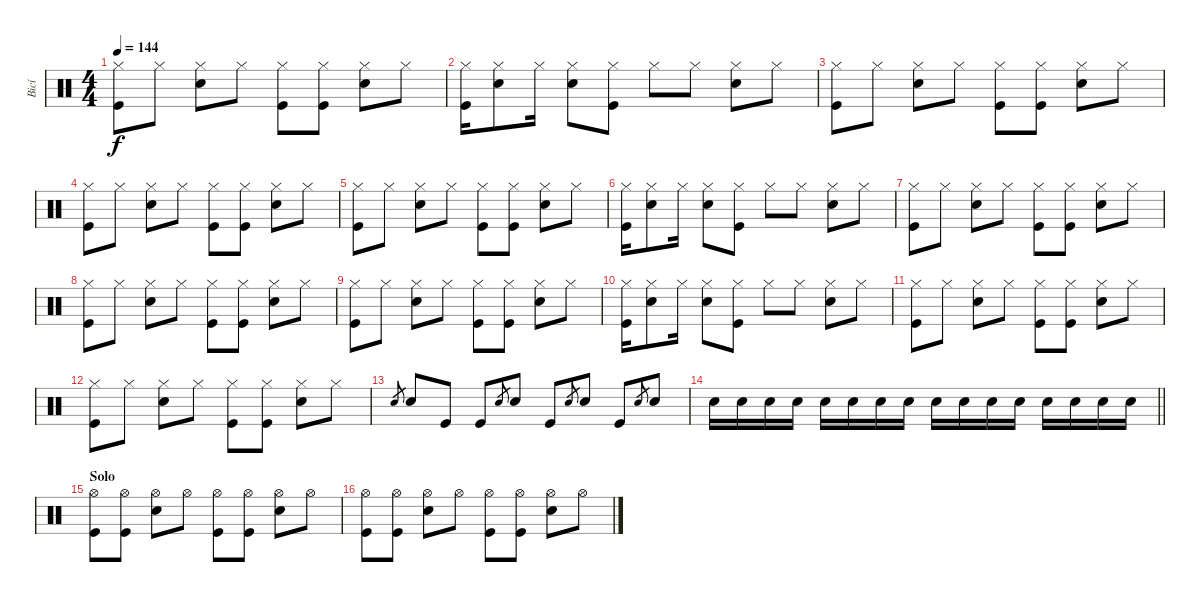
\track ("Bicí" "Bicí") {instrument percussion}
\staff
\articulation defaults
\ts (4 4)
\tempo 144
\clef neutral
\ks c
("Hi-Hat (closed)" "Kick (hit)").8{dy f} "Hi-Hat (closed)".8 ("Hi-Hat (closed)" "Electric Snare (hit)").8 "Hi-Hat (closed)".8 ("Hi-Hat (closed)" "Kick (hit)").8 ("Hi-Hat (closed)" "Kick (hit)").8 ("Hi-Hat (closed)" "Electric Snare (hit)").8 "Hi-Hat (closed)".8 |
("Hi-Hat (closed)" "Kick (hit)").16 ("Hi-Hat (closed)" "Electric Snare (hit)").8 "Hi-Hat (closed)".16 ("Hi-Hat (closed)" "Electric Snare (hit)").8 ("Hi-Hat (closed)" "Kick (hit)").8 "Hi-Hat (closed)".8 "Hi-Hat (closed)".8 ("Hi-Hat (closed)" "Electric Snare (hit)").8 "Hi-Hat (closed)".8 |
("Hi-Hat (closed)" "Kick (hit)").8 "Hi-Hat (closed)".8 ("Hi-Hat (closed)" "Electric Snare (hit)").8 "Hi-Hat (closed)".8 ("Hi-Hat (closed)" "Kick (hit)").8 ("Hi-Hat (closed)" "Kick (hit)").8 ("Hi-Hat (closed)" "Electric Snare (hit)").8 "Hi-Hat (closed)".8 |
("Hi-Hat (closed)" "Kick (hit)").8 "Hi-Hat (closed)".8 ("Hi-Hat (closed)" "Electric Snare (hit)").8 "Hi-Hat (closed)".8 ("Hi-Hat (closed)" "Kick (hit)").8 ("Hi-Hat (closed)" "Kick (hit)").8 ("Hi-Hat (closed)" "Electric Snare (hit)").8 "Hi-Hat (closed)".8 |
("Hi-Hat (closed)" "Kick (hit)").8 "Hi-Hat (closed)".8 ("Hi-Hat (closed)" "Electric Snare (hit)").8 "Hi-Hat (closed)".8 ("Hi-Hat (closed)" "Kick (hit)").8 ("Hi-Hat (closed)" "Kick (hit)").8 ("Hi-Hat (closed)" "Electric Snare (hit)").8 "Hi-Hat (closed)".8 |
("Hi-Hat (closed)" "Kick (hit)").16 ("Hi-Hat (closed)" "Electric Snare (hit)").8 "Hi-Hat (closed)".16 ("Hi-Hat (closed)" "Electric Snare (hit)").8 ("Hi-Hat (closed)" "Kick (hit)").8 "Hi-Hat (closed)".8 "Hi-Hat (closed)".8 ("Hi-Hat (closed)" "Electric Snare (hit)").8 "Hi-Hat (closed)".8 |
("Hi-Hat (closed)" "Kick (hit)").8 "Hi-Hat (closed)".8 ("Hi-Hat (closed)" "Electric Snare (hit)").8 "Hi-Hat (closed)".8 ("Hi-Hat (closed)" "Kick (hit)").8 ("Hi-Hat (closed)" "Kick (hit)").8 ("Hi-Hat (closed)" "Electric Snare (hit)").8 "Hi-Hat (closed)".8 |
("Hi-Hat (closed)" "Kick (hit)").8 "Hi-Hat (closed)".8 ("Hi-Hat (closed)" "Electric Snare (hit)").8 "Hi-Hat (closed)".8 ("Hi-Hat (closed)" "Kick (hit)").8 ("Hi-Hat (closed)" "Kick (hit)").8 ("Hi-Hat (closed)" "Electric Snare (hit)").8 "Hi-Hat (closed)".8 |
("Hi-Hat (closed)" "Kick (hit)").8 "Hi-Hat (closed)".8 ("Hi-Hat (closed)" "Electric Snare (hit)").8 "Hi-Hat (closed)".8 ("Hi-Hat (closed)" "Kick (hit)").8 ("Hi-Hat (closed)" "Kick (hit)").8 ("Hi-Hat (closed)" "Electric Snare (hit)").8 "Hi-Hat (closed)".8 |
("Hi-Hat (closed)" "Kick (hit)").16 ("Hi-Hat (closed)" "Electric Snare (hit)").8 "Hi-Hat (closed)".16 ("Hi-Hat (closed)" "Electric Snare (hit)").8 ("Hi-Hat (closed)" "Kick (hit)").8 "Hi-Hat (closed)".8 "Hi-Hat (closed)".8 ("Hi-Hat (closed)" "Electric Snare (hit)").8 "Hi-Hat (closed)".8 |
("Hi-Hat (closed)" "Kick (hit)").8 "Hi-Hat (closed)".8 ("Hi-Hat (closed)" "Electric Snare (hit)").8 "Hi-Hat (closed)".8 ("Hi-Hat (closed)" "Kick (hit)").8 ("Hi-Hat (closed)" "Kick (hit)").8 ("Hi-Hat (closed)" "Electric Snare (hit)").8 "Hi-Hat (closed)".8 |
("Hi-Hat (closed)" "Kick (hit)").8 "Hi-Hat (closed)".8 ("Hi-Hat (closed)" "Electric Snare (hit)").8 "Hi-Hat (closed)".8 ("Hi-Hat (closed)" "Kick (hit)").8 ("Hi-Hat (closed)" "Kick (hit)").8 ("Hi-Hat (closed)" "Electric Snare (hit)").8 "Hi-Hat (closed)".8 |
"Electric Snare (hit)".8{gr} "Electric Snare (hit)".8 "Kick (hit)".8 "Kick (hit)".8 "Electric Snare (hit)".8{gr} "Electric Snare (hit)".8 "Kick (hit)".8 "Electric Snare (hit)".8{gr} "Electric Snare (hit)".8 "Kick (hit)".8 "Electric Snare (hit)".8{gr} "Electric Snare (hit)".8 |
\barLineRight lightlight "Electric Snare (hit)".16 "Electric Snare (hit)".16 "Electric Snare (hit)".16 "Electric Snare (hit)".16 "Electric Snare (hit)".16 "Electric Snare (hit)".16 "Electric Snare (hit)".16 "Electric Snare (hit)".16 "Electric Snare (hit)".16 "Electric Snare (hit)".16 "Electric Snare (hit)".16 "Electric Snare (hit)".16 "Electric Snare (hit)".16 "Electric Snare (hit)".16 "Electric Snare (hit)".16 "Electric Snare (hit)".16
|
\section ("" "Solo")
("Hi-Hat (open)" "Kick (hit)").8 ("Hi-Hat (open)" "Kick (hit)").8 ("Hi-Hat (open)" "Electric Snare (hit)").8 "Hi-Hat (open)".8 ("Hi-Hat (open)" "Kick (hit)").8 ("Hi-Hat (open)" "Kick (hit)").8 ("Hi-Hat (open)" "Electric Snare (hit)").8 "Hi-Hat (open)".8 |
("Hi-Hat (open)" "Kick (hit)").8 ("Hi-Hat (open)" "Kick (hit)").8 ("Hi-Hat (open)" "Electric Snare (hit)").8 "Hi-Hat (open)".8 ("Hi-Hat (open)" "Kick (hit)").8 ("Hi-Hat (open)" "Kick (hit)").8 ("Hi-Hat (open)" "Electric Snare (hit)").8 "Hi-Hat (open)".8
